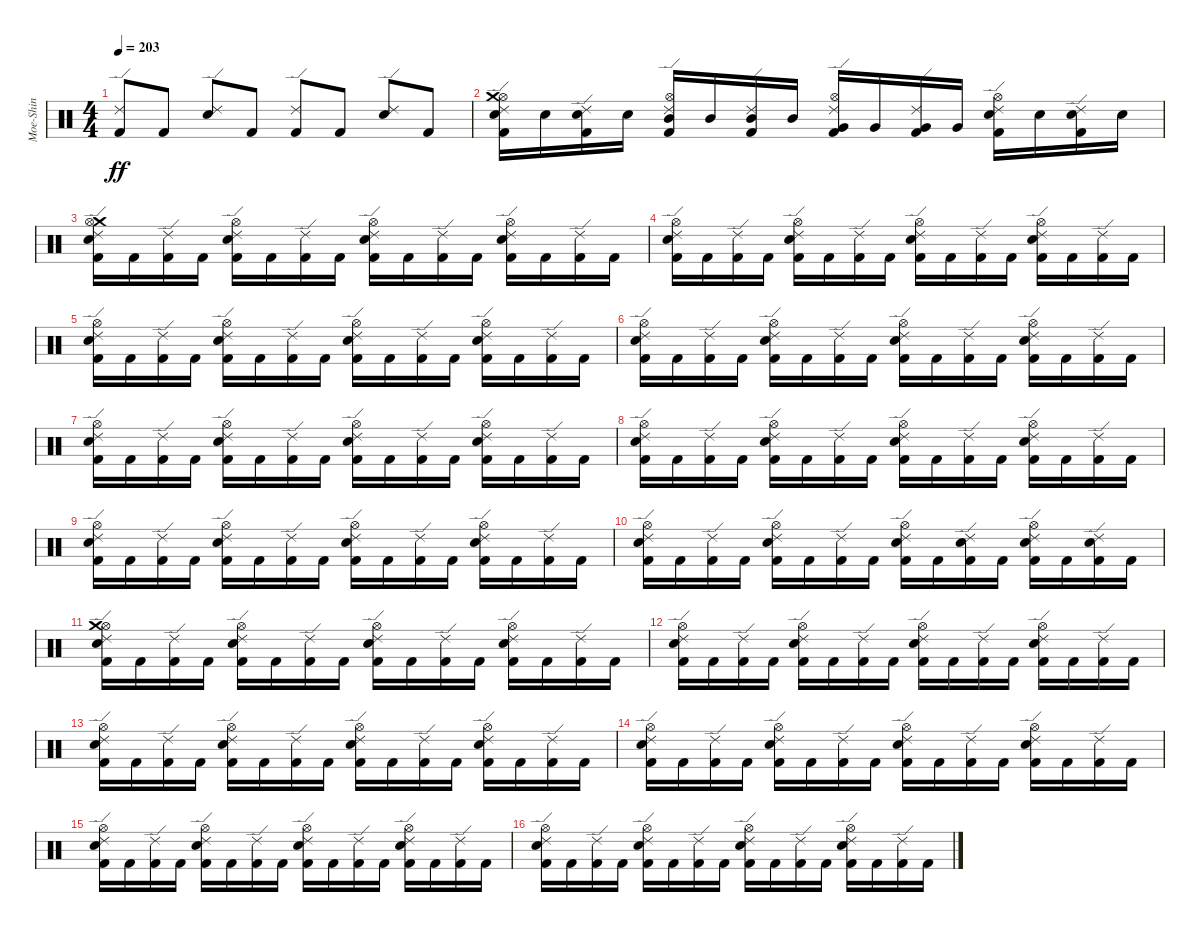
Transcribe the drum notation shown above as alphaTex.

\track ("Moe-Shin" "Moe-Shin") {instrument percussion}
\staff {score}
\articulation defaults
\ts (4 4)
\tempo 203
\clef neutral
\ks c
("Kick (hit) 2" "Ride (edge) 2").8{dy ff} "Kick (hit) 2".8 ("Snare (hit) 2" "Ride (edge) 2").8 "Kick (hit) 2".8 ("Kick (hit) 2" "Ride (edge) 2").8 "Kick (hit) 2".8 ("Snare (hit) 2" "Ride (edge) 2").8 "Kick (hit) 2".8 |
("Hi-Hat (open)" "Ride (edge) 2" "Kick (hit) 2" "Crash medium (hit)" "Snare (hit) 2").16 "Snare (hit) 2".16 ("Snare (hit) 2" "Kick (hit) 2" "Ride (edge) 2").16 "Snare (hit) 2".16 ("Kick (hit) 2" "Mid Tom (hit)" "Hi-Hat (open)" "Ride (edge) 2").16 "Mid Tom (hit)".16 ("Mid Tom (hit)" "Ride (edge) 2" "Kick (hit) 2").16 "Mid Tom (hit)".16 ("Very Low Tom (hit)" "Ride (edge) 2" "Hi-Hat (open)" "Kick (hit) 2").16 "Very Low Tom (hit)".16 ("Kick (hit) 2" "Very Low Tom (hit)" "Ride (edge) 2").16 "Very Low Tom (hit)".16 ("Kick (hit) 2" "Snare (hit) 2" "Ride (edge) 2" "Hi-Hat (open)").16 "Snare (hit) 2".16 ("Snare (hit) 2" "Ride (edge) 2" "Kick (hit) 2").16 "Snare (hit) 2".16 |
("Kick (hit) 2" "Crash medium (hit)" "Ride (edge) 2" "Snare (hit) 2" "Hi-Hat (open)").16 "Kick (hit) 2".16 ("Ride (edge) 2" "Kick (hit) 2").16 "Kick (hit) 2".16 ("Ride (edge) 2" "Kick (hit) 2" "Hi-Hat (open)" "Snare (hit) 2").16 "Kick (hit) 2".16 ("Kick (hit) 2" "Ride (edge) 2").16 "Kick (hit) 2".16 ("Ride (edge) 2" "Hi-Hat (open)" "Snare (hit) 2" "Kick (hit) 2").16 "Kick (hit) 2".16 ("Kick (hit) 2" "Ride (edge) 2").16 "Kick (hit) 2".16 ("Kick (hit) 2" "Hi-Hat (open)" "Ride (edge) 2" "Snare (hit) 2").16 "Kick (hit) 2".16 ("Kick (hit) 2" "Ride (edge) 2").16 "Kick (hit) 2".16 |
("Kick (hit) 2" "Hi-Hat (open)" "Ride (edge) 2" "Snare (hit) 2").16 "Kick (hit) 2".16 ("Ride (edge) 2" "Kick (hit) 2").16 "Kick (hit) 2".16 ("Hi-Hat (open)" "Ride (edge) 2" "Kick (hit) 2" "Snare (hit) 2").16 "Kick (hit) 2".16 ("Kick (hit) 2" "Ride (edge) 2").16 "Kick (hit) 2".16 ("Hi-Hat (open)" "Ride (edge) 2" "Snare (hit) 2" "Kick (hit) 2").16 "Kick (hit) 2".16 ("Kick (hit) 2" "Ride (edge) 2").16 "Kick (hit) 2".16 ("Snare (hit) 2" "Ride (edge) 2" "Kick (hit) 2" "Hi-Hat (open)").16 "Kick (hit) 2".16 ("Kick (hit) 2" "Ride (edge) 2").16 "Kick (hit) 2".16 |
("Hi-Hat (open)" "Ride (edge) 2" "Kick (hit) 2" "Snare (hit) 2").16 "Kick (hit) 2".16 ("Ride (edge) 2" "Kick (hit) 2").16 "Kick (hit) 2".16 ("Ride (edge) 2" "Hi-Hat (open)" "Kick (hit) 2" "Snare (hit) 2").16 "Kick (hit) 2".16 ("Kick (hit) 2" "Ride (edge) 2").16 "Kick (hit) 2".16 ("Kick (hit) 2" "Ride (edge) 2" "Snare (hit) 2" "Hi-Hat (open)").16 "Kick (hit) 2".16 ("Ride (edge) 2" "Kick (hit) 2").16 "Kick (hit) 2".16 ("Hi-Hat (open)" "Kick (hit) 2" "Ride (edge) 2" "Snare (hit) 2").16 "Kick (hit) 2".16 ("Ride (edge) 2" "Kick (hit) 2").16 "Kick (hit) 2".16 |
("Kick (hit) 2" "Ride (edge) 2" "Snare (hit) 2" "Hi-Hat (open)").16 "Kick (hit) 2".16 ("Kick (hit) 2" "Ride (edge) 2").16 "Kick (hit) 2".16 ("Hi-Hat (open)" "Kick (hit) 2" "Ride (edge) 2" "Snare (hit) 2").16 "Kick (hit) 2".16 ("Kick (hit) 2" "Ride (edge) 2").16 "Kick (hit) 2".16 ("Ride (edge) 2" "Kick (hit) 2" "Hi-Hat (open)" "Snare (hit) 2").16 "Kick (hit) 2".16 ("Ride (edge) 2" "Kick (hit) 2").16 "Kick (hit) 2".16 ("Snare (hit) 2" "Hi-Hat (open)" "Kick (hit) 2" "Ride (edge) 2").16 "Kick (hit) 2".16 ("Ride (edge) 2" "Kick (hit) 2").16 "Kick (hit) 2".16 |
("Hi-Hat (open)" "Kick (hit) 2" "Ride (edge) 2" "Snare (hit) 2").16 "Kick (hit) 2".16 ("Ride (edge) 2" "Kick (hit) 2").16 "Kick (hit) 2".16 ("Hi-Hat (open)" "Kick (hit) 2" "Snare (hit) 2" "Ride (edge) 2").16 "Kick (hit) 2".16 ("Kick (hit) 2" "Ride (edge) 2").16 "Kick (hit) 2".16 ("Ride (edge) 2" "Kick (hit) 2" "Hi-Hat (open)" "Snare (hit) 2").16 "Kick (hit) 2".16 ("Kick (hit) 2" "Ride (edge) 2").16 "Kick (hit) 2".16 ("Hi-Hat (open)" "Kick (hit) 2" "Snare (hit) 2" "Ride (edge) 2").16 "Kick (hit) 2".16 ("Kick (hit) 2" "Ride (edge) 2").16 "Kick (hit) 2".16 |
("Hi-Hat (open)" "Ride (edge) 2" "Kick (hit) 2" "Snare (hit) 2").16 "Kick (hit) 2".16 ("Ride (edge) 2" "Kick (hit) 2").16 "Kick (hit) 2".16 ("Hi-Hat (open)" "Kick (hit) 2" "Snare (hit) 2" "Ride (edge) 2").16 "Kick (hit) 2".16 ("Kick (hit) 2" "Ride (edge) 2").16 "Kick (hit) 2".16 ("Kick (hit) 2" "Hi-Hat (open)" "Ride (edge) 2" "Snare (hit) 2").16 "Kick (hit) 2".16 ("Ride (edge) 2" "Kick (hit) 2").16 "Kick (hit) 2".16 ("Ride (edge) 2" "Hi-Hat (open)" "Snare (hit) 2" "Kick (hit) 2").16 "Kick (hit) 2".16 ("Kick (hit) 2" "Ride (edge) 2").16 "Kick (hit) 2".16 |
("Hi-Hat (open)" "Ride (edge) 2" "Kick (hit) 2" "Snare (hit) 2").16 "Kick (hit) 2".16 ("Kick (hit) 2" "Ride (edge) 2").16 "Kick (hit) 2".16 ("Ride (edge) 2" "Kick (hit) 2" "Snare (hit) 2" "Hi-Hat (open)").16 "Kick (hit) 2".16 ("Ride (edge) 2" "Kick (hit) 2").16 "Kick (hit) 2".16 ("Kick (hit) 2" "Ride (edge) 2" "Hi-Hat (open)" "Snare (hit) 2").16 "Kick (hit) 2".16 ("Ride (edge) 2" "Kick (hit) 2").16 "Kick (hit) 2".16 ("Hi-Hat (open)" "Kick (hit) 2" "Ride (edge) 2" "Snare (hit) 2").16 "Kick (hit) 2".16 ("Kick (hit) 2" "Ride (edge) 2").16 "Kick (hit) 2".16 |
("Kick (hit) 2" "Hi-Hat (open)" "Ride (edge) 2" "Snare (hit) 2").16 "Kick (hit) 2".16 ("Kick (hit) 2" "Ride (edge) 2").16 "Kick (hit) 2".16 ("Hi-Hat (open)" "Ride (edge) 2" "Snare (hit) 2" "Kick (hit) 2").16 "Kick (hit) 2".16 ("Kick (hit) 2" "Ride (edge) 2").16 "Kick (hit) 2".16 ("Ride (edge) 2" "Hi-Hat (open)" "Snare (hit) 2" "Kick (hit) 2").16 "Kick (hit) 2".16 ("Ride (edge) 2" "Snare (hit) 2" "Kick (hit) 2").16 "Kick (hit) 2".16 ("Kick (hit) 2" "Hi-Hat (open)" "Ride (edge) 2" "Snare (hit) 2").16 "Kick (hit) 2".16 ("Ride (edge) 2" "Kick (hit) 2" "Snare (hit) 2").16 "Kick (hit) 2".16 |
("Hi-Hat (open)" "Crash medium (hit)" "Kick (hit) 2" "Snare (hit) 2" "Ride (edge) 2").16 "Kick (hit) 2".16 ("Ride (edge) 2" "Kick (hit) 2").16 "Kick (hit) 2".16 ("Hi-Hat (open)" "Ride (edge) 2" "Kick (hit) 2" "Snare (hit) 2").16 "Kick (hit) 2".16 ("Kick (hit) 2" "Ride (edge) 2").16 "Kick (hit) 2".16 ("Ride (edge) 2" "Hi-Hat (open)" "Kick (hit) 2" "Snare (hit) 2").16 "Kick (hit) 2".16 ("Ride (edge) 2" "Kick (hit) 2").16 "Kick (hit) 2".16 ("Hi-Hat (open)" "Ride (edge) 2" "Kick (hit) 2" "Snare (hit) 2").16 "Kick (hit) 2".16 ("Ride (edge) 2" "Kick (hit) 2").16 "Kick (hit) 2".16 |
("Snare (hit) 2" "Hi-Hat (open)" "Ride (edge) 2" "Kick (hit) 2").16 "Kick (hit) 2".16 ("Ride (edge) 2" "Kick (hit) 2").16 "Kick (hit) 2".16 ("Kick (hit) 2" "Snare (hit) 2" "Ride (edge) 2" "Hi-Hat (open)").16 "Kick (hit) 2".16 ("Kick (hit) 2" "Ride (edge) 2").16 "Kick (hit) 2".16 ("Ride (edge) 2" "Kick (hit) 2" "Snare (hit) 2" "Hi-Hat (open)").16 "Kick (hit) 2".16 ("Kick (hit) 2" "Ride (edge) 2").16 "Kick (hit) 2".16 ("Kick (hit) 2" "Snare (hit) 2" "Ride (edge) 2" "Hi-Hat (open)").16 "Kick (hit) 2".16 ("Ride (edge) 2" "Kick (hit) 2").16 "Kick (hit) 2".16 |
("Hi-Hat (open)" "Kick (hit) 2" "Ride (edge) 2" "Snare (hit) 2").16 "Kick (hit) 2".16 ("Ride (edge) 2" "Kick (hit) 2").16 "Kick (hit) 2".16 ("Kick (hit) 2" "Snare (hit) 2" "Ride (edge) 2" "Hi-Hat (open)").16 "Kick (hit) 2".16 ("Kick (hit) 2" "Ride (edge) 2").16 "Kick (hit) 2".16 ("Kick (hit) 2" "Snare (hit) 2" "Hi-Hat (open)" "Ride (edge) 2").16 "Kick (hit) 2".16 ("Kick (hit) 2" "Ride (edge) 2").16 "Kick (hit) 2".16 ("Hi-Hat (open)" "Kick (hit) 2" "Snare (hit) 2" "Ride (edge) 2").16 "Kick (hit) 2".16 ("Kick (hit) 2" "Ride (edge) 2").16 "Kick (hit) 2".16 |
("Kick (hit) 2" "Hi-Hat (open)" "Snare (hit) 2" "Ride (edge) 2").16 "Kick (hit) 2".16 ("Ride (edge) 2" "Kick (hit) 2").16 "Kick (hit) 2".16 ("Kick (hit) 2" "Ride (edge) 2" "Snare (hit) 2" "Hi-Hat (open)").16 "Kick (hit) 2".16 ("Kick (hit) 2" "Ride (edge) 2").16 "Kick (hit) 2".16 ("Hi-Hat (open)" "Snare (hit) 2" "Ride (edge) 2" "Kick (hit) 2").16 "Kick (hit) 2".16 ("Ride (edge) 2" "Kick (hit) 2").16 "Kick (hit) 2".16 ("Kick (hit) 2" "Ride (edge) 2" "Hi-Hat (open)" "Snare (hit) 2").16 "Kick (hit) 2".16 ("Kick (hit) 2" "Ride (edge) 2").16 "Kick (hit) 2".16 |
("Snare (hit) 2" "Hi-Hat (open)" "Ride (edge) 2" "Kick (hit) 2").16 "Kick (hit) 2".16 ("Ride (edge) 2" "Kick (hit) 2").16 "Kick (hit) 2".16 ("Hi-Hat (open)" "Ride (edge) 2" "Kick (hit) 2" "Snare (hit) 2").16 "Kick (hit) 2".16 ("Ride (edge) 2" "Kick (hit) 2").16 "Kick (hit) 2".16 ("Snare (hit) 2" "Kick (hit) 2" "Ride (edge) 2" "Hi-Hat (open)").16 "Kick (hit) 2".16 ("Ride (edge) 2" "Kick (hit) 2").16 "Kick (hit) 2".16 ("Kick (hit) 2" "Hi-Hat (open)" "Ride (edge) 2" "Snare (hit) 2").16 "Kick (hit) 2".16 ("Ride (edge) 2" "Kick (hit) 2").16 "Kick (hit) 2".16 |
("Ride (edge) 2" "Kick (hit) 2" "Hi-Hat (open)" "Snare (hit) 2").16 "Kick (hit) 2".16 ("Kick (hit) 2" "Ride (edge) 2").16 "Kick (hit) 2".16 ("Kick (hit) 2" "Hi-Hat (open)" "Ride (edge) 2" "Snare (hit) 2").16 "Kick (hit) 2".16 ("Kick (hit) 2" "Ride (edge) 2").16 "Kick (hit) 2".16 ("Kick (hit) 2" "Ride (edge) 2" "Hi-Hat (open)" "Snare (hit) 2").16 "Kick (hit) 2".16 ("Kick (hit) 2" "Ride (edge) 2").16 "Kick (hit) 2".16 ("Snare (hit) 2" "Ride (edge) 2" "Kick (hit) 2" "Hi-Hat (open)").16 "Kick (hit) 2".16 ("Kick (hit) 2" "Ride (edge) 2").16 "Kick (hit) 2".16
